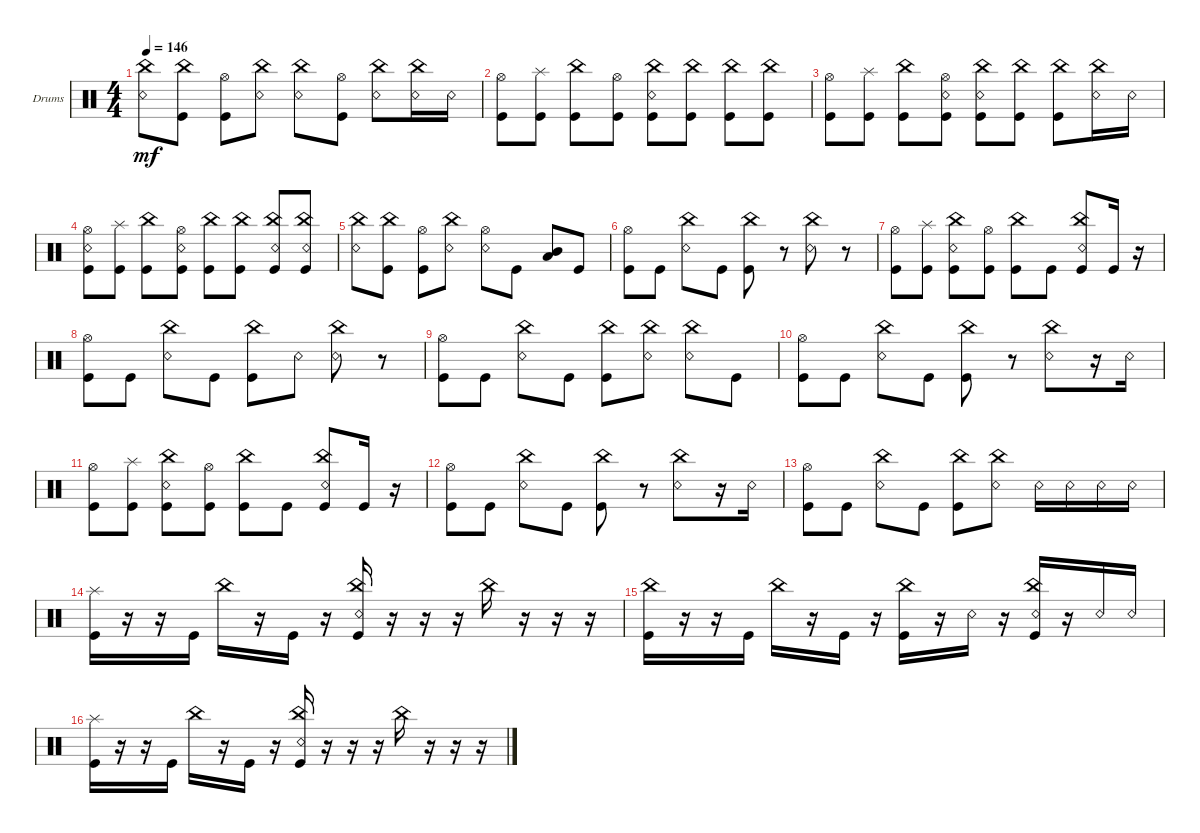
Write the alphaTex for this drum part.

\defaultSystemsLayout 4
\bracketExtendMode groupsimilarinstruments
\firstSystemTrackNameOrientation horizontal
\otherSystemsTrackNameOrientation horizontal
\track ("Drums" "Drums") {instrument percussion}
\staff {score}
\articulation defaults
\ts (4 4)
\tempo 146
\clef neutral
\ks c
("Snare (rim shot)" "China (hit)").8{dy mf} ("Kick (hit)" "China (hit)").8 ("Kick (hit)" "Hi-Hat (open)").8 ("Snare (rim shot)" "China (hit)").8 ("Snare (rim shot)" "China (hit)").8 ("Kick (hit)" "Hi-Hat (open)").8 ("Snare (rim shot)" "China (hit)").8 ("Snare (rim shot)" "China (hit)").16 "Snare (rim shot)".16 |
("Kick (hit)" "Hi-Hat (open)").8 ("Kick (hit)" "Splash (hit)").8 ("Kick (hit)" "China (hit)").8 ("Kick (hit)" "Hi-Hat (open)").8 ("Snare (rim shot)" "Kick (hit)" "China (hit)").8 ("Kick (hit)" "China (hit)").8 ("Kick (hit)" "China (hit)").8 ("Kick (hit)" "China (hit)").8 |
("Kick (hit)" "Hi-Hat (open)").8 ("Kick (hit)" "Splash (hit)").8 ("Kick (hit)" "China (hit)").8 ("Kick (hit)" "Hi-Hat (open)" "Snare (rim shot)").8 ("Snare (rim shot)" "Kick (hit)" "China (hit)").8 ("Kick (hit)" "China (hit)").8 ("Kick (hit)" "China (hit)").8 ("China (hit)" "Snare (rim shot)").16 "Snare (rim shot)".16 |
("Kick (hit)" "Hi-Hat (open)" "Snare (rim shot)").8 ("Kick (hit)" "Splash (hit)").8 ("Kick (hit)" "China (hit)").8 ("Kick (hit)" "Hi-Hat (open)" "Snare (rim shot)").8 ("Kick (hit)" "China (hit)").8 ("Kick (hit)" "China (hit)").8 ("Kick (hit)" "China (hit)" "Snare (rim shot)").8 ("Kick (hit)" "China (hit)" "Snare (rim shot)").8 |
("Snare (rim shot)" "China (hit)").8 ("Kick (hit)" "China (hit)").8 ("Kick (hit)" "Hi-Hat (open)").8 ("Snare (rim shot)" "China (hit)").8 ("Snare (rim shot)" "Hi-Hat (open)").8 "Kick (hit)".8 ("Mid Tom (hit)" "Low Tom (hit)").8 "Kick (hit)".8 |
("Kick (hit)" "Hi-Hat (open)").8 "Kick (hit)".8 ("China (hit)" "Snare (rim shot)").8 "Kick (hit)".8 ("Kick (hit)" "China (hit)").8 r.8 ("China (hit)" "Snare (rim shot)").8 r.8 |
("Kick (hit)" "Hi-Hat (open)").8 ("Kick (hit)" "Splash (hit)").8 ("Kick (hit)" "China (hit)" "Snare (rim shot)").8 ("Kick (hit)" "Hi-Hat (open)").8 ("Kick (hit)" "China (hit)").8 "Kick (hit)".8 ("Kick (hit)" "China (hit)" "Snare (rim shot)").8 "Kick (hit)".16 r.16 |
("Kick (hit)" "Hi-Hat (open)").8 "Kick (hit)".8 ("China (hit)" "Snare (rim shot)").8 "Kick (hit)".8 ("Kick (hit)" "China (hit)").8 "Snare (rim shot)".8 ("China (hit)" "Snare (rim shot)").8 r.8 |
("Kick (hit)" "Hi-Hat (open)").8 "Kick (hit)".8 ("China (hit)" "Snare (rim shot)").8 "Kick (hit)".8 ("Kick (hit)" "China (hit)").8 ("Snare (rim shot)" "China (hit)").8 ("China (hit)" "Snare (rim shot)").8 "Kick (hit)".8 |
("Kick (hit)" "Hi-Hat (open)").8 "Kick (hit)".8 ("China (hit)" "Snare (rim shot)").8 "Kick (hit)".8 ("Kick (hit)" "China (hit)").8 r.8 ("China (hit)" "Snare (rim shot)").8 r.16 "Snare (rim shot)".16 |
("Kick (hit)" "Hi-Hat (open)").8 ("Kick (hit)" "Splash (hit)").8 ("Kick (hit)" "China (hit)" "Snare (rim shot)").8 ("Kick (hit)" "Hi-Hat (open)").8 ("Kick (hit)" "China (hit)").8 "Kick (hit)".8 ("Kick (hit)" "China (hit)" "Snare (rim shot)").8 "Kick (hit)".16 r.16 |
("Kick (hit)" "Hi-Hat (open)").8 "Kick (hit)".8 ("China (hit)" "Snare (rim shot)").8 "Kick (hit)".8 ("Kick (hit)" "China (hit)").8 r.8 ("China (hit)" "Snare (rim shot)").8 r.16 "Snare (rim shot)".16 |
("Kick (hit)" "Hi-Hat (open)").8 "Kick (hit)".8 ("China (hit)" "Snare (rim shot)").8 "Kick (hit)".8 ("Kick (hit)" "China (hit)").8 ("Snare (rim shot)" "China (hit)").8 "Snare (rim shot)".16 "Snare (rim shot)".16 "Snare (rim shot)".16 "Snare (rim shot)".16 |
("Splash (hit)" "Kick (hit)").16 r.16 r.16 "Kick (hit)".16 "China (hit)".16 r.16 "Kick (hit)".16 r.16 ("Kick (hit)" "China (hit)" "Snare (rim shot)").16 r.16 r.16 r.16 "China (hit)".16 r.16 r.16 r.16 |
("Kick (hit)" "China (hit)").16 r.16 r.16 "Kick (hit)".16 "China (hit)".16 r.16 "Kick (hit)".16 r.16 ("Kick (hit)" "China (hit)").16 r.16 "Snare (rim shot)".16 r.16 ("China (hit)" "Kick (hit)" "Snare (rim shot)").16 r.16 "Snare (rim shot)".16 "Snare (rim shot)".16 |
("Splash (hit)" "Kick (hit)").16 r.16 r.16 "Kick (hit)".16 "China (hit)".16 r.16 "Kick (hit)".16 r.16 ("Kick (hit)" "China (hit)" "Snare (rim shot)").16 r.16 r.16 r.16 "China (hit)".16 r.16 r.16 r.16
